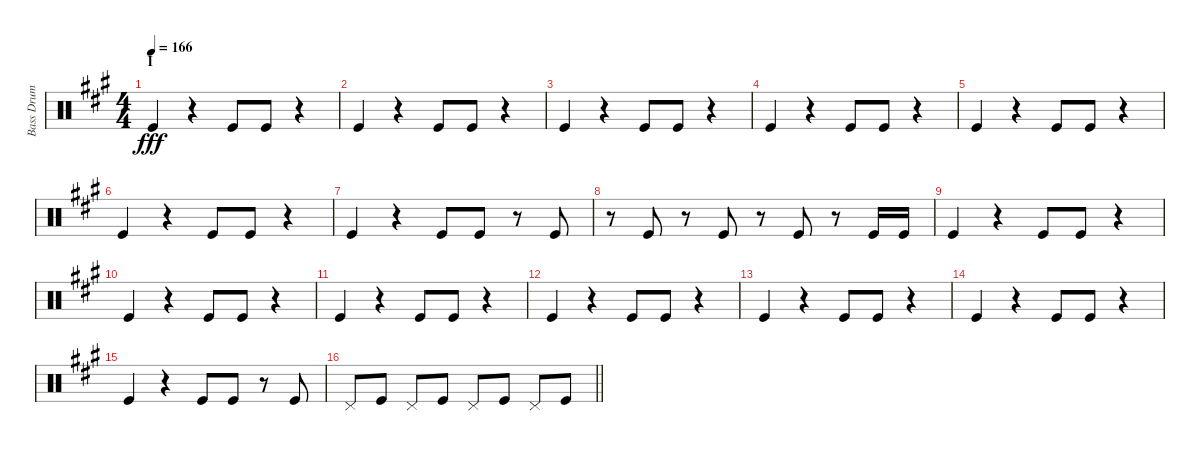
\track ("Bass Drum" "Bass Drum") {instrument percussion}
\staff {score}
\articulation defaults
\ts (4 4)
\section ("" "I")
\tempo 166
\clef neutral
\ks a "Kick (hit)".4{dy fff}
r.4 "Kick (hit)".8 "Kick (hit)".8 r.4 |
"Kick (hit)".4 r.4 "Kick (hit)".8 "Kick (hit)".8 r.4 |
"Kick (hit)".4 r.4 "Kick (hit)".8 "Kick (hit)".8 r.4 |
"Kick (hit)".4 r.4 "Kick (hit)".8 "Kick (hit)".8 r.4 |
"Kick (hit)".4 r.4 "Kick (hit)".8 "Kick (hit)".8 r.4 |
"Kick (hit)".4 r.4 "Kick (hit)".8 "Kick (hit)".8 r.4 |
"Kick (hit)".4 r.4 "Kick (hit)".8 "Kick (hit)".8 r.8 "Kick (hit)".8 |
r.8 "Kick (hit)".8 r.8 "Kick (hit)".8 r.8 "Kick (hit)".8 r.8 "Kick (hit)".16 "Kick (hit)".16 |
"Kick (hit)".4 r.4 "Kick (hit)".8 "Kick (hit)".8 r.4 |
"Kick (hit)".4 r.4 "Kick (hit)".8 "Kick (hit)".8 r.4 |
"Kick (hit)".4 r.4 "Kick (hit)".8 "Kick (hit)".8 r.4 |
"Kick (hit)".4 r.4 "Kick (hit)".8 "Kick (hit)".8 r.4 |
"Kick (hit)".4 r.4 "Kick (hit)".8 "Kick (hit)".8 r.4 |
"Kick (hit)".4 r.4 "Kick (hit)".8 "Kick (hit)".8 r.4 |
"Kick (hit)".4 r.4 "Kick (hit)".8 "Kick (hit)".8 r.8 "Kick (hit)".8 |
\barLineRight lightlight "Pedal Hi-Hat (hit)".8 "Kick (hit)".8 "Pedal Hi-Hat (hit)".8 "Kick (hit)".8 "Pedal Hi-Hat (hit)".8 "Kick (hit)".8 "Pedal Hi-Hat (hit)".8 "Kick (hit)".8
